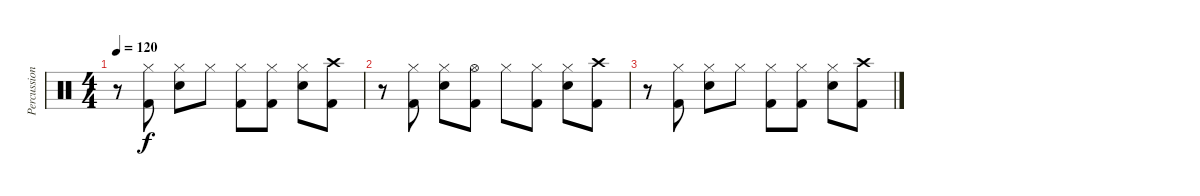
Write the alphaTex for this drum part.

\track ("Percussion" "Percussion") {instrument percussion}
\staff {score}
\articulation defaults
\ts (4 4)
\tempo 120
\clef neutral
\ks c
r.8{dy f} ("Hi-Hat (closed)" "Kick (hit) 2").8 ("Hi-Hat (closed)" "Snare (hit) 2").8 "Hi-Hat (closed)".8 ("Hi-Hat (closed)" "Kick (hit) 2").8 ("Hi-Hat (closed)" "Kick (hit) 2").8 ("Hi-Hat (closed)" "Snare (hit) 2").8 ("Crash high (hit)" "Kick (hit) 2").8 |
r.8 ("Hi-Hat (closed)" "Kick (hit) 2").8 ("Hi-Hat (closed)" "Snare (hit) 2").8 ("Hi-Hat (open)" "Kick (hit) 2").8 "Hi-Hat (closed)".8 ("Hi-Hat (closed)" "Kick (hit) 2").8 ("Hi-Hat (closed)" "Snare (hit) 2").8 ("Crash high (hit)" "Kick (hit) 2").8 |
r.8 ("Hi-Hat (closed)" "Kick (hit) 2").8 ("Hi-Hat (closed)" "Snare (hit) 2").8 "Hi-Hat (closed)".8 ("Hi-Hat (closed)" "Kick (hit) 2").8 ("Hi-Hat (closed)" "Kick (hit) 2").8 ("Hi-Hat (closed)" "Snare (hit) 2").8 ("Crash high (hit)" "Kick (hit) 2").8
